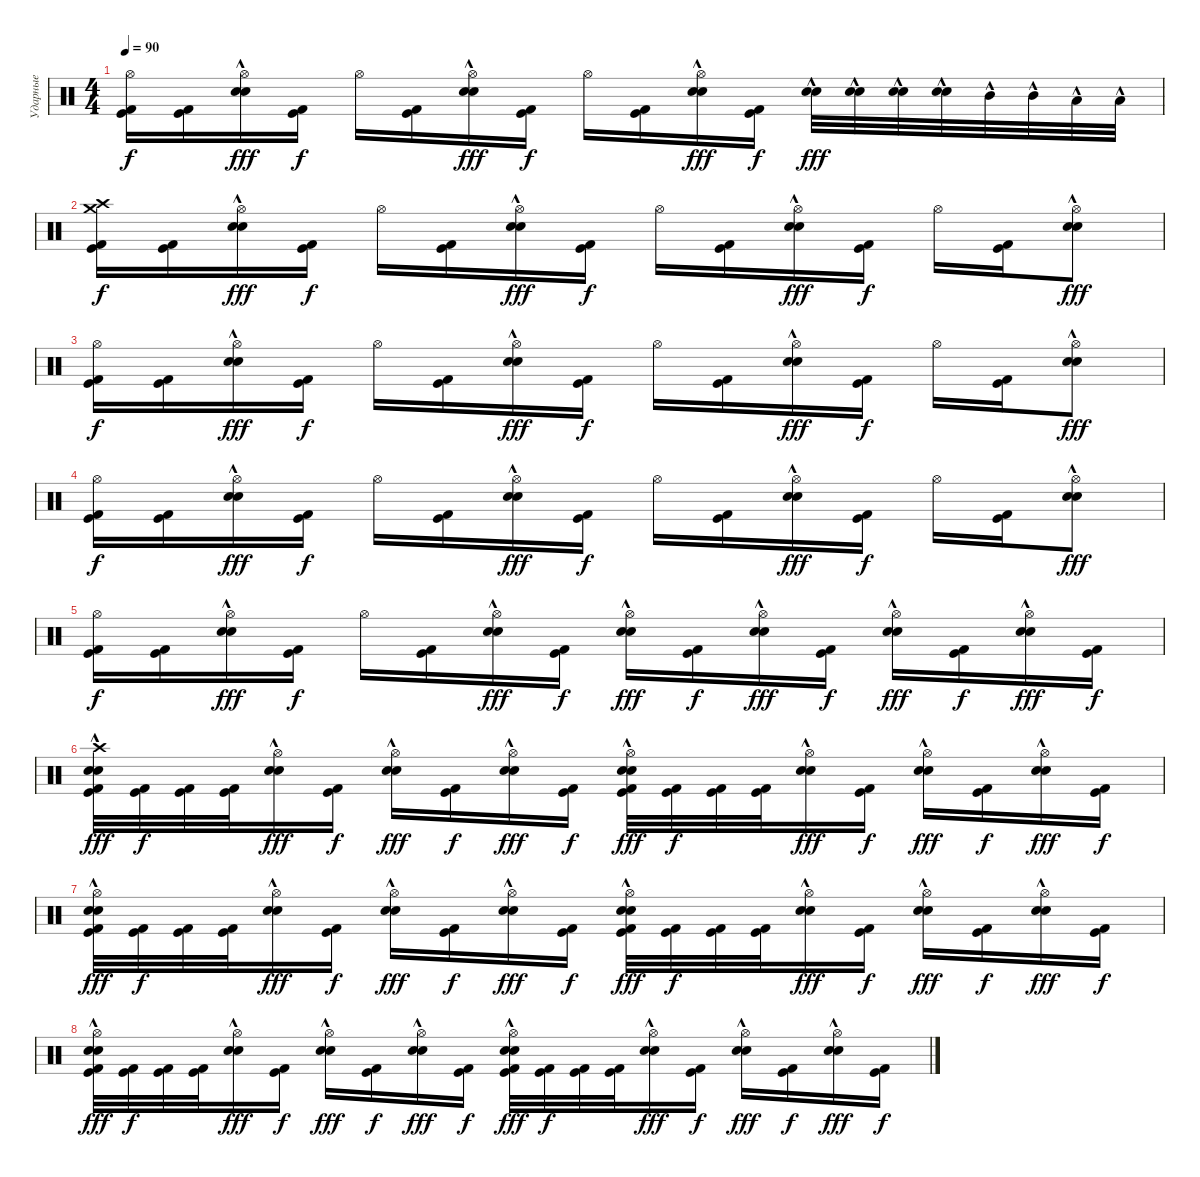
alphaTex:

\track ("Ударные" "Ударные") {instrument percussion}
\staff {score}
\articulation defaults
\ts (4 4)
\tempo 90
\clef neutral
\ks c
("Hi-Hat (open)" "Kick (hit)" "Kick (hit) 2").16{dy f} ("Kick (hit)" "Kick (hit) 2").16 ("Hi-Hat (open)" "Snare (hit) 2"{hac} "Electric Snare (hit)"{hac}).16{dy fff} ("Kick (hit)" "Kick (hit) 2").16{dy f} "Hi-Hat (open)".16 ("Kick (hit)" "Kick (hit) 2").16 ("Hi-Hat (open)" "Snare (hit) 2"{hac} "Electric Snare (hit)"{hac}).16{dy fff} ("Kick (hit)" "Kick (hit) 2").16{dy f} "Hi-Hat (open)".16 ("Kick (hit)" "Kick (hit) 2").16 ("Hi-Hat (open)" "Snare (hit) 2"{hac} "Electric Snare (hit)"{hac}).16{dy fff} ("Kick (hit)" "Kick (hit) 2").16{dy f} ("Snare (hit) 2"{hac} "Electric Snare (hit)"{hac}).32{dy fff} ("Snare (hit) 2"{hac} "Electric Snare (hit)"{hac}).32 ("Snare (hit) 2"{hac} "Electric Snare (hit)"{hac}).32 ("Snare (hit) 2"{hac} "Electric Snare (hit)"{hac}).32 "Mid Tom (hit)"{hac}.32 "Mid Tom (hit)"{hac}.32 "Low Tom (hit)"{hac}.32 "Low Tom (hit)"{hac}.32 |
("Crash high (hit)" "Kick (hit)" "Kick (hit) 2" "Crash medium (hit)").16{dy f} ("Kick (hit)" "Kick (hit) 2").16 ("Hi-Hat (open)" "Snare (hit) 2"{hac} "Electric Snare (hit)"{hac}).16{dy fff} ("Kick (hit)" "Kick (hit) 2").16{dy f} "Hi-Hat (open)".16 ("Kick (hit)" "Kick (hit) 2").16 ("Hi-Hat (open)" "Snare (hit) 2"{hac} "Electric Snare (hit)"{hac}).16{dy fff} ("Kick (hit)" "Kick (hit) 2").16{dy f} "Hi-Hat (open)".16 ("Kick (hit)" "Kick (hit) 2").16 ("Hi-Hat (open)" "Snare (hit) 2"{hac} "Electric Snare (hit)"{hac}).16{dy fff} ("Kick (hit)" "Kick (hit) 2").16{dy f} "Hi-Hat (open)".16 ("Kick (hit)" "Kick (hit) 2").16 ("Hi-Hat (open)" "Snare (hit) 2"{hac} "Electric Snare (hit)"{hac}).8{dy fff} |
("Hi-Hat (open)" "Kick (hit)" "Kick (hit) 2").16{dy f} ("Kick (hit)" "Kick (hit) 2").16 ("Hi-Hat (open)" "Snare (hit) 2"{hac} "Electric Snare (hit)"{hac}).16{dy fff} ("Kick (hit)" "Kick (hit) 2").16{dy f} "Hi-Hat (open)".16 ("Kick (hit)" "Kick (hit) 2").16 ("Hi-Hat (open)" "Snare (hit) 2"{hac} "Electric Snare (hit)"{hac}).16{dy fff} ("Kick (hit)" "Kick (hit) 2").16{dy f} "Hi-Hat (open)".16 ("Kick (hit)" "Kick (hit) 2").16 ("Hi-Hat (open)" "Snare (hit) 2"{hac} "Electric Snare (hit)"{hac}).16{dy fff} ("Kick (hit)" "Kick (hit) 2").16{dy f} "Hi-Hat (open)".16 ("Kick (hit)" "Kick (hit) 2").16 ("Hi-Hat (open)" "Snare (hit) 2"{hac} "Electric Snare (hit)"{hac}).8{dy fff} |
("Hi-Hat (open)" "Kick (hit)" "Kick (hit) 2").16{dy f} ("Kick (hit)" "Kick (hit) 2").16 ("Hi-Hat (open)" "Snare (hit) 2"{hac} "Electric Snare (hit)"{hac}).16{dy fff} ("Kick (hit)" "Kick (hit) 2").16{dy f} "Hi-Hat (open)".16 ("Kick (hit)" "Kick (hit) 2").16 ("Hi-Hat (open)" "Snare (hit) 2"{hac} "Electric Snare (hit)"{hac}).16{dy fff} ("Kick (hit)" "Kick (hit) 2").16{dy f} "Hi-Hat (open)".16 ("Kick (hit)" "Kick (hit) 2").16 ("Hi-Hat (open)" "Snare (hit) 2"{hac} "Electric Snare (hit)"{hac}).16{dy fff} ("Kick (hit)" "Kick (hit) 2").16{dy f} "Hi-Hat (open)".16 ("Kick (hit)" "Kick (hit) 2").16 ("Hi-Hat (open)" "Snare (hit) 2"{hac} "Electric Snare (hit)"{hac}).8{dy fff} |
("Hi-Hat (open)" "Kick (hit)" "Kick (hit) 2").16{dy f} ("Kick (hit)" "Kick (hit) 2").16 ("Hi-Hat (open)" "Snare (hit) 2"{hac} "Electric Snare (hit)"{hac}).16{dy fff} ("Kick (hit)" "Kick (hit) 2").16{dy f} "Hi-Hat (open)".16 ("Kick (hit)" "Kick (hit) 2").16 ("Hi-Hat (open)" "Snare (hit) 2"{hac} "Electric Snare (hit)"{hac}).16{dy fff} ("Kick (hit)" "Kick (hit) 2").16{dy f} ("Hi-Hat (open)" "Snare (hit) 2"{hac} "Electric Snare (hit)"{hac}).16{dy fff} ("Kick (hit)" "Kick (hit) 2").16{dy f} ("Hi-Hat (open)" "Snare (hit) 2"{hac} "Electric Snare (hit)"{hac}).16{dy fff} ("Kick (hit)" "Kick (hit) 2").16{dy f} ("Hi-Hat (open)" "Snare (hit) 2"{hac} "Electric Snare (hit)"{hac}).16{dy fff} ("Kick (hit)" "Kick (hit) 2").16{dy f} ("Hi-Hat (open)" "Snare (hit) 2"{hac} "Electric Snare (hit)"{hac}).16{dy fff} ("Kick (hit)" "Kick (hit) 2").16{dy f} |
("Crash high (hit)" "Kick (hit)" "Kick (hit) 2" "Snare (hit) 2"{hac} "Electric Snare (hit)"{hac}).32{dy fff} ("Kick (hit)" "Kick (hit) 2").32{dy f} ("Kick (hit)" "Kick (hit) 2").32 ("Kick (hit)" "Kick (hit) 2").32 ("Hi-Hat (open)" "Snare (hit) 2"{hac} "Electric Snare (hit)"{hac}).16{dy fff} ("Kick (hit)" "Kick (hit) 2").16{dy f} ("Hi-Hat (open)" "Snare (hit) 2"{hac} "Electric Snare (hit)"{hac}).16{dy fff} ("Kick (hit)" "Kick (hit) 2").16{dy f} ("Hi-Hat (open)" "Snare (hit) 2"{hac} "Electric Snare (hit)"{hac}).16{dy fff} ("Kick (hit)" "Kick (hit) 2").16{dy f} ("Hi-Hat (open)" "Kick (hit)" "Kick (hit) 2" "Snare (hit) 2"{hac} "Electric Snare (hit)"{hac}).32{dy fff} ("Kick (hit)" "Kick (hit) 2").32{dy f} ("Kick (hit)" "Kick (hit) 2").32 ("Kick (hit)" "Kick (hit) 2").32 ("Hi-Hat (open)" "Snare (hit) 2"{hac} "Electric Snare (hit)"{hac}).16{dy fff} ("Kick (hit)" "Kick (hit) 2").16{dy f} ("Hi-Hat (open)" "Snare (hit) 2"{hac} "Electric Snare (hit)"{hac}).16{dy fff} ("Kick (hit)" "Kick (hit) 2").16{dy f} ("Hi-Hat (open)" "Snare (hit) 2"{hac} "Electric Snare (hit)"{hac}).16{dy fff} ("Kick (hit)" "Kick (hit) 2").16{dy f} |
("Hi-Hat (open)" "Kick (hit)" "Kick (hit) 2" "Snare (hit) 2"{hac} "Electric Snare (hit)"{hac}).32{dy fff} ("Kick (hit)" "Kick (hit) 2").32{dy f} ("Kick (hit)" "Kick (hit) 2").32 ("Kick (hit)" "Kick (hit) 2").32 ("Hi-Hat (open)" "Snare (hit) 2"{hac} "Electric Snare (hit)"{hac}).16{dy fff} ("Kick (hit)" "Kick (hit) 2").16{dy f} ("Hi-Hat (open)" "Snare (hit) 2"{hac} "Electric Snare (hit)"{hac}).16{dy fff} ("Kick (hit)" "Kick (hit) 2").16{dy f} ("Hi-Hat (open)" "Snare (hit) 2"{hac} "Electric Snare (hit)"{hac}).16{dy fff} ("Kick (hit)" "Kick (hit) 2").16{dy f} ("Hi-Hat (open)" "Kick (hit)" "Kick (hit) 2" "Snare (hit) 2"{hac} "Electric Snare (hit)"{hac}).32{dy fff} ("Kick (hit)" "Kick (hit) 2").32{dy f} ("Kick (hit)" "Kick (hit) 2").32 ("Kick (hit)" "Kick (hit) 2").32 ("Hi-Hat (open)" "Snare (hit) 2"{hac} "Electric Snare (hit)"{hac}).16{dy fff} ("Kick (hit)" "Kick (hit) 2").16{dy f} ("Hi-Hat (open)" "Snare (hit) 2"{hac} "Electric Snare (hit)"{hac}).16{dy fff} ("Kick (hit)" "Kick (hit) 2").16{dy f} ("Hi-Hat (open)" "Snare (hit) 2"{hac} "Electric Snare (hit)"{hac}).16{dy fff} ("Kick (hit)" "Kick (hit) 2").16{dy f} |
("Hi-Hat (open)" "Kick (hit)" "Kick (hit) 2" "Snare (hit) 2"{hac} "Electric Snare (hit)"{hac}).32{dy fff} ("Kick (hit)" "Kick (hit) 2").32{dy f} ("Kick (hit)" "Kick (hit) 2").32 ("Kick (hit)" "Kick (hit) 2").32 ("Hi-Hat (open)" "Snare (hit) 2"{hac} "Electric Snare (hit)"{hac}).16{dy fff} ("Kick (hit)" "Kick (hit) 2").16{dy f} ("Hi-Hat (open)" "Snare (hit) 2"{hac} "Electric Snare (hit)"{hac}).16{dy fff} ("Kick (hit)" "Kick (hit) 2").16{dy f} ("Hi-Hat (open)" "Snare (hit) 2"{hac} "Electric Snare (hit)"{hac}).16{dy fff} ("Kick (hit)" "Kick (hit) 2").16{dy f} ("Hi-Hat (open)" "Kick (hit)" "Kick (hit) 2" "Snare (hit) 2"{hac} "Electric Snare (hit)"{hac}).32{dy fff} ("Kick (hit)" "Kick (hit) 2").32{dy f} ("Kick (hit)" "Kick (hit) 2").32 ("Kick (hit)" "Kick (hit) 2").32 ("Hi-Hat (open)" "Snare (hit) 2"{hac} "Electric Snare (hit)"{hac}).16{dy fff} ("Kick (hit)" "Kick (hit) 2").16{dy f} ("Hi-Hat (open)" "Snare (hit) 2"{hac} "Electric Snare (hit)"{hac}).16{dy fff} ("Kick (hit)" "Kick (hit) 2").16{dy f} ("Hi-Hat (open)" "Snare (hit) 2"{hac} "Electric Snare (hit)"{hac}).16{dy fff} ("Kick (hit)" "Kick (hit) 2").16{dy f}
